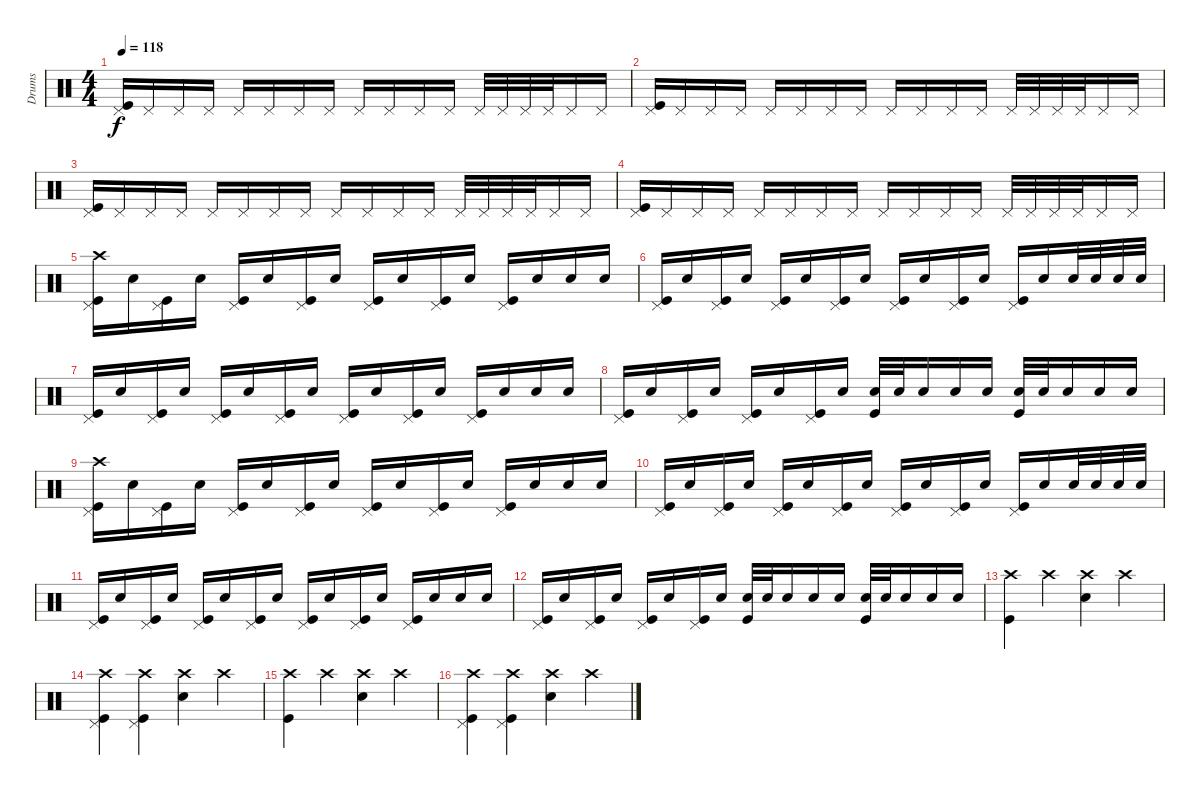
\track ("Drums" "Drums") {instrument percussion}
\staff {score}
\articulation defaults
\ts (4 4)
\tempo 118
\clef neutral
\ks c
("Pedal Hi-Hat (hit)" "Kick (hit)").16{dy f} "Pedal Hi-Hat (hit)".16 "Pedal Hi-Hat (hit)".16 "Pedal Hi-Hat (hit)".16 "Pedal Hi-Hat (hit)".16 "Pedal Hi-Hat (hit)".16 "Pedal Hi-Hat (hit)".16 "Pedal Hi-Hat (hit)".16 "Pedal Hi-Hat (hit)".16 "Pedal Hi-Hat (hit)".16 "Pedal Hi-Hat (hit)".16 "Pedal Hi-Hat (hit)".16 "Pedal Hi-Hat (hit)".32 "Pedal Hi-Hat (hit)".32 "Pedal Hi-Hat (hit)".32 "Pedal Hi-Hat (hit)".32 "Pedal Hi-Hat (hit)".16 "Pedal Hi-Hat (hit)".16 |
("Pedal Hi-Hat (hit)" "Kick (hit)").16 "Pedal Hi-Hat (hit)".16 "Pedal Hi-Hat (hit)".16 "Pedal Hi-Hat (hit)".16 "Pedal Hi-Hat (hit)".16 "Pedal Hi-Hat (hit)".16 "Pedal Hi-Hat (hit)".16 "Pedal Hi-Hat (hit)".16 "Pedal Hi-Hat (hit)".16 "Pedal Hi-Hat (hit)".16 "Pedal Hi-Hat (hit)".16 "Pedal Hi-Hat (hit)".16 "Pedal Hi-Hat (hit)".32 "Pedal Hi-Hat (hit)".32 "Pedal Hi-Hat (hit)".32 "Pedal Hi-Hat (hit)".32 "Pedal Hi-Hat (hit)".16 "Pedal Hi-Hat (hit)".16 |
("Pedal Hi-Hat (hit)" "Kick (hit)").16 "Pedal Hi-Hat (hit)".16 "Pedal Hi-Hat (hit)".16 "Pedal Hi-Hat (hit)".16 "Pedal Hi-Hat (hit)".16 "Pedal Hi-Hat (hit)".16 "Pedal Hi-Hat (hit)".16 "Pedal Hi-Hat (hit)".16 "Pedal Hi-Hat (hit)".16 "Pedal Hi-Hat (hit)".16 "Pedal Hi-Hat (hit)".16 "Pedal Hi-Hat (hit)".16 "Pedal Hi-Hat (hit)".32 "Pedal Hi-Hat (hit)".32 "Pedal Hi-Hat (hit)".32 "Pedal Hi-Hat (hit)".32 "Pedal Hi-Hat (hit)".16 "Pedal Hi-Hat (hit)".16 |
("Pedal Hi-Hat (hit)" "Kick (hit)").16 "Pedal Hi-Hat (hit)".16 "Pedal Hi-Hat (hit)".16 "Pedal Hi-Hat (hit)".16 "Pedal Hi-Hat (hit)".16 "Pedal Hi-Hat (hit)".16 "Pedal Hi-Hat (hit)".16 "Pedal Hi-Hat (hit)".16 "Pedal Hi-Hat (hit)".16 "Pedal Hi-Hat (hit)".16 "Pedal Hi-Hat (hit)".16 "Pedal Hi-Hat (hit)".16 "Pedal Hi-Hat (hit)".32 "Pedal Hi-Hat (hit)".32 "Pedal Hi-Hat (hit)".32 "Pedal Hi-Hat (hit)".32 "Pedal Hi-Hat (hit)".16 "Pedal Hi-Hat (hit)".16 |
("Crash high (hit)" "Pedal Hi-Hat (hit)" "Kick (hit)").16 "Snare (hit) 2".16 ("Pedal Hi-Hat (hit)" "Kick (hit)").16 "Snare (hit) 2".16 ("Pedal Hi-Hat (hit)" "Kick (hit)").16 "Snare (hit) 2".16 ("Pedal Hi-Hat (hit)" "Kick (hit)").16 "Snare (hit) 2".16 ("Pedal Hi-Hat (hit)" "Kick (hit)").16 "Snare (hit) 2".16 ("Pedal Hi-Hat (hit)" "Kick (hit)").16 "Snare (hit) 2".16 ("Pedal Hi-Hat (hit)" "Kick (hit)").16 "Snare (hit) 2".16 "Snare (hit) 2".16 "Snare (hit) 2".16 |
("Pedal Hi-Hat (hit)" "Kick (hit)").16 "Snare (hit) 2".16 ("Pedal Hi-Hat (hit)" "Kick (hit)").16 "Snare (hit) 2".16 ("Pedal Hi-Hat (hit)" "Kick (hit)").16 "Snare (hit) 2".16 ("Pedal Hi-Hat (hit)" "Kick (hit)").16 "Snare (hit) 2".16 ("Pedal Hi-Hat (hit)" "Kick (hit)").16 "Snare (hit) 2".16 ("Pedal Hi-Hat (hit)" "Kick (hit)").16 "Snare (hit) 2".16 ("Pedal Hi-Hat (hit)" "Kick (hit)").16 "Snare (hit) 2".16 "Snare (hit) 2".32 "Snare (hit) 2".32 "Snare (hit) 2".32 "Snare (hit) 2".32 |
("Pedal Hi-Hat (hit)" "Kick (hit)").16 "Snare (hit) 2".16 ("Pedal Hi-Hat (hit)" "Kick (hit)").16 "Snare (hit) 2".16 ("Pedal Hi-Hat (hit)" "Kick (hit)").16 "Snare (hit) 2".16 ("Pedal Hi-Hat (hit)" "Kick (hit)").16 "Snare (hit) 2".16 ("Pedal Hi-Hat (hit)" "Kick (hit)").16 "Snare (hit) 2".16 ("Pedal Hi-Hat (hit)" "Kick (hit)").16 "Snare (hit) 2".16 ("Pedal Hi-Hat (hit)" "Kick (hit)").16 "Snare (hit) 2".16 "Snare (hit) 2".16 "Snare (hit) 2".16 |
("Pedal Hi-Hat (hit)" "Kick (hit)").16 "Snare (hit) 2".16 ("Pedal Hi-Hat (hit)" "Kick (hit)").16 "Snare (hit) 2".16 ("Pedal Hi-Hat (hit)" "Kick (hit)").16 "Snare (hit) 2".16 ("Pedal Hi-Hat (hit)" "Kick (hit)").16 "Snare (hit) 2".16 ("Snare (hit) 2" "Kick (hit)").32 "Snare (hit) 2".32 "Snare (hit) 2".16 "Snare (hit) 2".16 "Snare (hit) 2".16 ("Snare (hit) 2" "Kick (hit)").32 "Snare (hit) 2".32 "Snare (hit) 2".16 "Snare (hit) 2".16 "Snare (hit) 2".16 |
("Crash high (hit)" "Pedal Hi-Hat (hit)" "Kick (hit)").16 "Snare (hit) 2".16 ("Pedal Hi-Hat (hit)" "Kick (hit)").16 "Snare (hit) 2".16 ("Pedal Hi-Hat (hit)" "Kick (hit)").16 "Snare (hit) 2".16 ("Pedal Hi-Hat (hit)" "Kick (hit)").16 "Snare (hit) 2".16 ("Pedal Hi-Hat (hit)" "Kick (hit)").16 "Snare (hit) 2".16 ("Pedal Hi-Hat (hit)" "Kick (hit)").16 "Snare (hit) 2".16 ("Pedal Hi-Hat (hit)" "Kick (hit)").16 "Snare (hit) 2".16 "Snare (hit) 2".16 "Snare (hit) 2".16 |
("Pedal Hi-Hat (hit)" "Kick (hit)").16 "Snare (hit) 2".16 ("Pedal Hi-Hat (hit)" "Kick (hit)").16 "Snare (hit) 2".16 ("Pedal Hi-Hat (hit)" "Kick (hit)").16 "Snare (hit) 2".16 ("Pedal Hi-Hat (hit)" "Kick (hit)").16 "Snare (hit) 2".16 ("Pedal Hi-Hat (hit)" "Kick (hit)").16 "Snare (hit) 2".16 ("Pedal Hi-Hat (hit)" "Kick (hit)").16 "Snare (hit) 2".16 ("Pedal Hi-Hat (hit)" "Kick (hit)").16 "Snare (hit) 2".16 "Snare (hit) 2".32 "Snare (hit) 2".32 "Snare (hit) 2".32 "Snare (hit) 2".32 |
("Pedal Hi-Hat (hit)" "Kick (hit)").16 "Snare (hit) 2".16 ("Pedal Hi-Hat (hit)" "Kick (hit)").16 "Snare (hit) 2".16 ("Pedal Hi-Hat (hit)" "Kick (hit)").16 "Snare (hit) 2".16 ("Pedal Hi-Hat (hit)" "Kick (hit)").16 "Snare (hit) 2".16 ("Pedal Hi-Hat (hit)" "Kick (hit)").16 "Snare (hit) 2".16 ("Pedal Hi-Hat (hit)" "Kick (hit)").16 "Snare (hit) 2".16 ("Pedal Hi-Hat (hit)" "Kick (hit)").16 "Snare (hit) 2".16 "Snare (hit) 2".16 "Snare (hit) 2".16 |
("Pedal Hi-Hat (hit)" "Kick (hit)").16 "Snare (hit) 2".16 ("Pedal Hi-Hat (hit)" "Kick (hit)").16 "Snare (hit) 2".16 ("Pedal Hi-Hat (hit)" "Kick (hit)").16 "Snare (hit) 2".16 ("Pedal Hi-Hat (hit)" "Kick (hit)").16 "Snare (hit) 2".16 ("Snare (hit) 2" "Kick (hit)").32 "Snare (hit) 2".32 "Snare (hit) 2".16 "Snare (hit) 2".16 "Snare (hit) 2".16 ("Snare (hit) 2" "Kick (hit)").32 "Snare (hit) 2".32 "Snare (hit) 2".16 "Snare (hit) 2".16 "Snare (hit) 2".16 |
("Crash high (hit)" "Kick (hit)").4 "Crash high (hit)".4 ("Crash high (hit)" "Snare (hit) 2").4 "Crash high (hit)".4 |
("Crash high (hit)" "Pedal Hi-Hat (hit)" "Kick (hit)").4 ("Crash high (hit)" "Pedal Hi-Hat (hit)" "Kick (hit)").4 ("Crash high (hit)" "Snare (hit) 2").4 "Crash high (hit)".4 |
("Crash high (hit)" "Kick (hit)").4 "Crash high (hit)".4 ("Crash high (hit)" "Snare (hit) 2").4 "Crash high (hit)".4 |
("Crash high (hit)" "Pedal Hi-Hat (hit)" "Kick (hit)").4 ("Crash high (hit)" "Pedal Hi-Hat (hit)" "Kick (hit)").4 ("Crash high (hit)" "Snare (hit) 2").4 "Crash high (hit)".4
